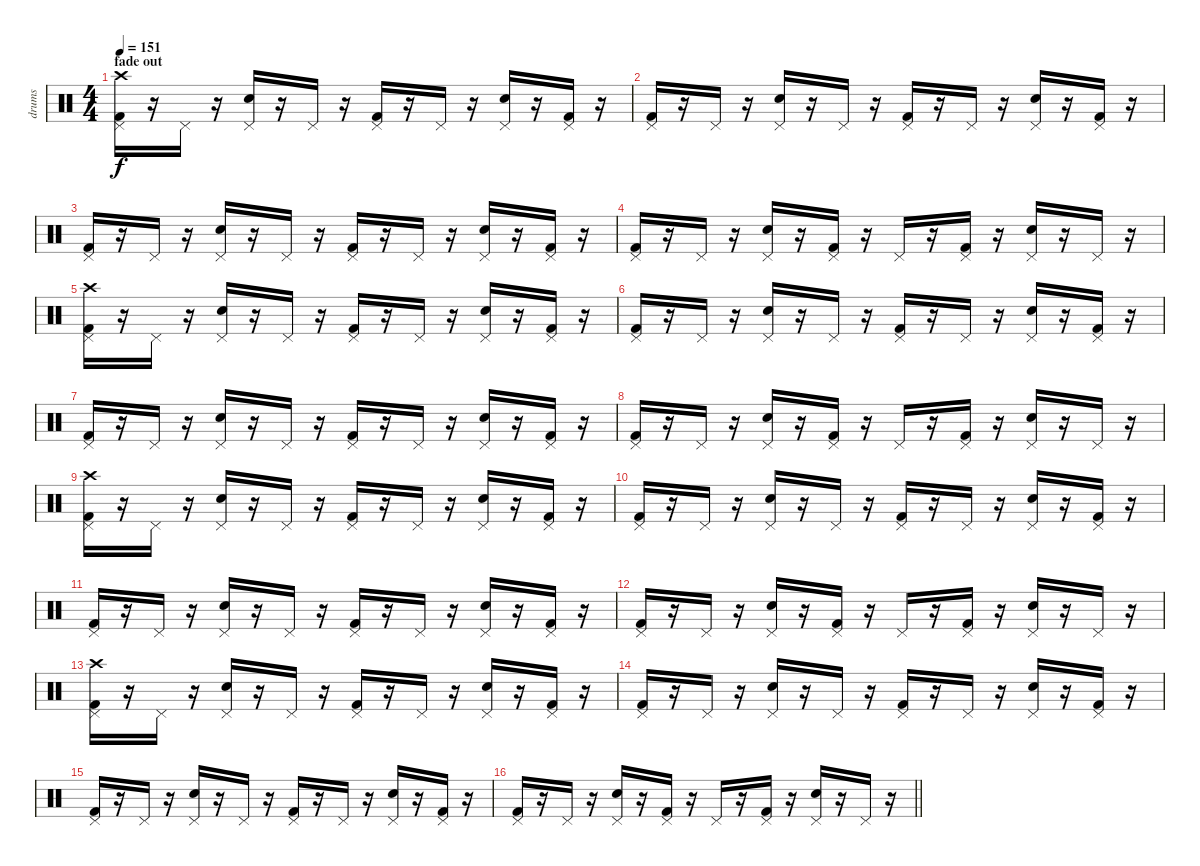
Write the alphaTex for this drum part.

\track ("drums" "drums") {instrument percussion}
\staff {score}
\articulation defaults
\ts (4 4)
\section ("" "fade out")
\tempo 151
\clef neutral
\ks c
("Kick (hit) 2" "Pedal Hi-Hat (hit)" "Crash high (hit)").16{dy f} r.16 "Pedal Hi-Hat (hit)".16 r.16 ("Electric Snare (hit)" "Pedal Hi-Hat (hit)").16 r.16 "Pedal Hi-Hat (hit)".16 r.16 ("Kick (hit) 2" "Pedal Hi-Hat (hit)").16 r.16 "Pedal Hi-Hat (hit)".16 r.16 ("Electric Snare (hit)" "Pedal Hi-Hat (hit)").16 r.16 ("Kick (hit) 2" "Pedal Hi-Hat (hit)").16 r.16 |
("Kick (hit) 2" "Pedal Hi-Hat (hit)").16 r.16 "Pedal Hi-Hat (hit)".16 r.16 ("Electric Snare (hit)" "Pedal Hi-Hat (hit)").16 r.16 "Pedal Hi-Hat (hit)".16 r.16 ("Kick (hit) 2" "Pedal Hi-Hat (hit)").16 r.16 "Pedal Hi-Hat (hit)".16 r.16 ("Electric Snare (hit)" "Pedal Hi-Hat (hit)").16 r.16 ("Kick (hit) 2" "Pedal Hi-Hat (hit)").16 r.16 |
("Kick (hit) 2" "Pedal Hi-Hat (hit)").16 r.16 "Pedal Hi-Hat (hit)".16 r.16 ("Electric Snare (hit)" "Pedal Hi-Hat (hit)").16 r.16 "Pedal Hi-Hat (hit)".16 r.16 ("Kick (hit) 2" "Pedal Hi-Hat (hit)").16 r.16 "Pedal Hi-Hat (hit)".16 r.16 ("Electric Snare (hit)" "Pedal Hi-Hat (hit)").16 r.16 ("Kick (hit) 2" "Pedal Hi-Hat (hit)").16 r.16 |
("Kick (hit) 2" "Pedal Hi-Hat (hit)").16 r.16 "Pedal Hi-Hat (hit)".16 r.16 ("Electric Snare (hit)" "Pedal Hi-Hat (hit)").16 r.16 ("Kick (hit) 2" "Pedal Hi-Hat (hit)").16 r.16 "Pedal Hi-Hat (hit)".16 r.16 ("Kick (hit) 2" "Pedal Hi-Hat (hit)").16 r.16 ("Electric Snare (hit)" "Pedal Hi-Hat (hit)").16 r.16 "Pedal Hi-Hat (hit)".16 r.16 |
("Kick (hit) 2" "Pedal Hi-Hat (hit)" "Crash high (hit)").16 r.16 "Pedal Hi-Hat (hit)".16 r.16 ("Electric Snare (hit)" "Pedal Hi-Hat (hit)").16 r.16 "Pedal Hi-Hat (hit)".16 r.16 ("Kick (hit) 2" "Pedal Hi-Hat (hit)").16 r.16 "Pedal Hi-Hat (hit)".16 r.16 ("Electric Snare (hit)" "Pedal Hi-Hat (hit)").16 r.16 ("Kick (hit) 2" "Pedal Hi-Hat (hit)").16 r.16 |
("Kick (hit) 2" "Pedal Hi-Hat (hit)").16 r.16 "Pedal Hi-Hat (hit)".16 r.16 ("Electric Snare (hit)" "Pedal Hi-Hat (hit)").16 r.16 "Pedal Hi-Hat (hit)".16 r.16 ("Kick (hit) 2" "Pedal Hi-Hat (hit)").16 r.16 "Pedal Hi-Hat (hit)".16 r.16 ("Electric Snare (hit)" "Pedal Hi-Hat (hit)").16 r.16 ("Kick (hit) 2" "Pedal Hi-Hat (hit)").16 r.16 |
("Kick (hit) 2" "Pedal Hi-Hat (hit)").16 r.16 "Pedal Hi-Hat (hit)".16 r.16 ("Electric Snare (hit)" "Pedal Hi-Hat (hit)").16 r.16 "Pedal Hi-Hat (hit)".16 r.16 ("Kick (hit) 2" "Pedal Hi-Hat (hit)").16 r.16 "Pedal Hi-Hat (hit)".16 r.16 ("Electric Snare (hit)" "Pedal Hi-Hat (hit)").16 r.16 ("Kick (hit) 2" "Pedal Hi-Hat (hit)").16 r.16 |
("Kick (hit) 2" "Pedal Hi-Hat (hit)").16 r.16 "Pedal Hi-Hat (hit)".16 r.16 ("Electric Snare (hit)" "Pedal Hi-Hat (hit)").16 r.16 ("Kick (hit) 2" "Pedal Hi-Hat (hit)").16 r.16 "Pedal Hi-Hat (hit)".16 r.16 ("Kick (hit) 2" "Pedal Hi-Hat (hit)").16 r.16 ("Electric Snare (hit)" "Pedal Hi-Hat (hit)").16 r.16 "Pedal Hi-Hat (hit)".16 r.16 |
("Kick (hit) 2" "Pedal Hi-Hat (hit)" "Crash high (hit)").16 r.16 "Pedal Hi-Hat (hit)".16 r.16 ("Electric Snare (hit)" "Pedal Hi-Hat (hit)").16 r.16 "Pedal Hi-Hat (hit)".16 r.16 ("Kick (hit) 2" "Pedal Hi-Hat (hit)").16 r.16 "Pedal Hi-Hat (hit)".16 r.16 ("Electric Snare (hit)" "Pedal Hi-Hat (hit)").16 r.16 ("Kick (hit) 2" "Pedal Hi-Hat (hit)").16 r.16 |
("Kick (hit) 2" "Pedal Hi-Hat (hit)").16 r.16 "Pedal Hi-Hat (hit)".16 r.16 ("Electric Snare (hit)" "Pedal Hi-Hat (hit)").16 r.16 "Pedal Hi-Hat (hit)".16 r.16 ("Kick (hit) 2" "Pedal Hi-Hat (hit)").16 r.16 "Pedal Hi-Hat (hit)".16 r.16 ("Electric Snare (hit)" "Pedal Hi-Hat (hit)").16 r.16 ("Kick (hit) 2" "Pedal Hi-Hat (hit)").16 r.16 |
("Kick (hit) 2" "Pedal Hi-Hat (hit)").16 r.16 "Pedal Hi-Hat (hit)".16 r.16 ("Electric Snare (hit)" "Pedal Hi-Hat (hit)").16 r.16 "Pedal Hi-Hat (hit)".16 r.16 ("Kick (hit) 2" "Pedal Hi-Hat (hit)").16 r.16 "Pedal Hi-Hat (hit)".16 r.16 ("Electric Snare (hit)" "Pedal Hi-Hat (hit)").16 r.16 ("Kick (hit) 2" "Pedal Hi-Hat (hit)").16 r.16 |
("Kick (hit) 2" "Pedal Hi-Hat (hit)").16 r.16 "Pedal Hi-Hat (hit)".16 r.16 ("Electric Snare (hit)" "Pedal Hi-Hat (hit)").16 r.16 ("Kick (hit) 2" "Pedal Hi-Hat (hit)").16 r.16 "Pedal Hi-Hat (hit)".16 r.16 ("Kick (hit) 2" "Pedal Hi-Hat (hit)").16 r.16 ("Electric Snare (hit)" "Pedal Hi-Hat (hit)").16 r.16 "Pedal Hi-Hat (hit)".16 r.16 |
("Kick (hit) 2" "Pedal Hi-Hat (hit)" "Crash high (hit)").16 r.16 "Pedal Hi-Hat (hit)".16 r.16 ("Electric Snare (hit)" "Pedal Hi-Hat (hit)").16 r.16 "Pedal Hi-Hat (hit)".16 r.16 ("Kick (hit) 2" "Pedal Hi-Hat (hit)").16 r.16 "Pedal Hi-Hat (hit)".16 r.16 ("Electric Snare (hit)" "Pedal Hi-Hat (hit)").16 r.16 ("Kick (hit) 2" "Pedal Hi-Hat (hit)").16 r.16 |
("Kick (hit) 2" "Pedal Hi-Hat (hit)").16 r.16 "Pedal Hi-Hat (hit)".16 r.16 ("Electric Snare (hit)" "Pedal Hi-Hat (hit)").16 r.16 "Pedal Hi-Hat (hit)".16 r.16 ("Kick (hit) 2" "Pedal Hi-Hat (hit)").16 r.16 "Pedal Hi-Hat (hit)".16 r.16 ("Electric Snare (hit)" "Pedal Hi-Hat (hit)").16 r.16 ("Kick (hit) 2" "Pedal Hi-Hat (hit)").16 r.16 |
("Kick (hit) 2" "Pedal Hi-Hat (hit)").16 r.16 "Pedal Hi-Hat (hit)".16 r.16 ("Electric Snare (hit)" "Pedal Hi-Hat (hit)").16 r.16 "Pedal Hi-Hat (hit)".16 r.16 ("Kick (hit) 2" "Pedal Hi-Hat (hit)").16 r.16 "Pedal Hi-Hat (hit)".16 r.16 ("Electric Snare (hit)" "Pedal Hi-Hat (hit)").16 r.16 ("Kick (hit) 2" "Pedal Hi-Hat (hit)").16 r.16 |
\barLineRight lightlight
("Kick (hit) 2" "Pedal Hi-Hat (hit)").16 r.16 "Pedal Hi-Hat (hit)".16 r.16 ("Electric Snare (hit)" "Pedal Hi-Hat (hit)").16 r.16 ("Kick (hit) 2" "Pedal Hi-Hat (hit)").16 r.16 "Pedal Hi-Hat (hit)".16 r.16 ("Kick (hit) 2" "Pedal Hi-Hat (hit)").16 r.16 ("Electric Snare (hit)" "Pedal Hi-Hat (hit)").16 r.16 "Pedal Hi-Hat (hit)".16 r.16
